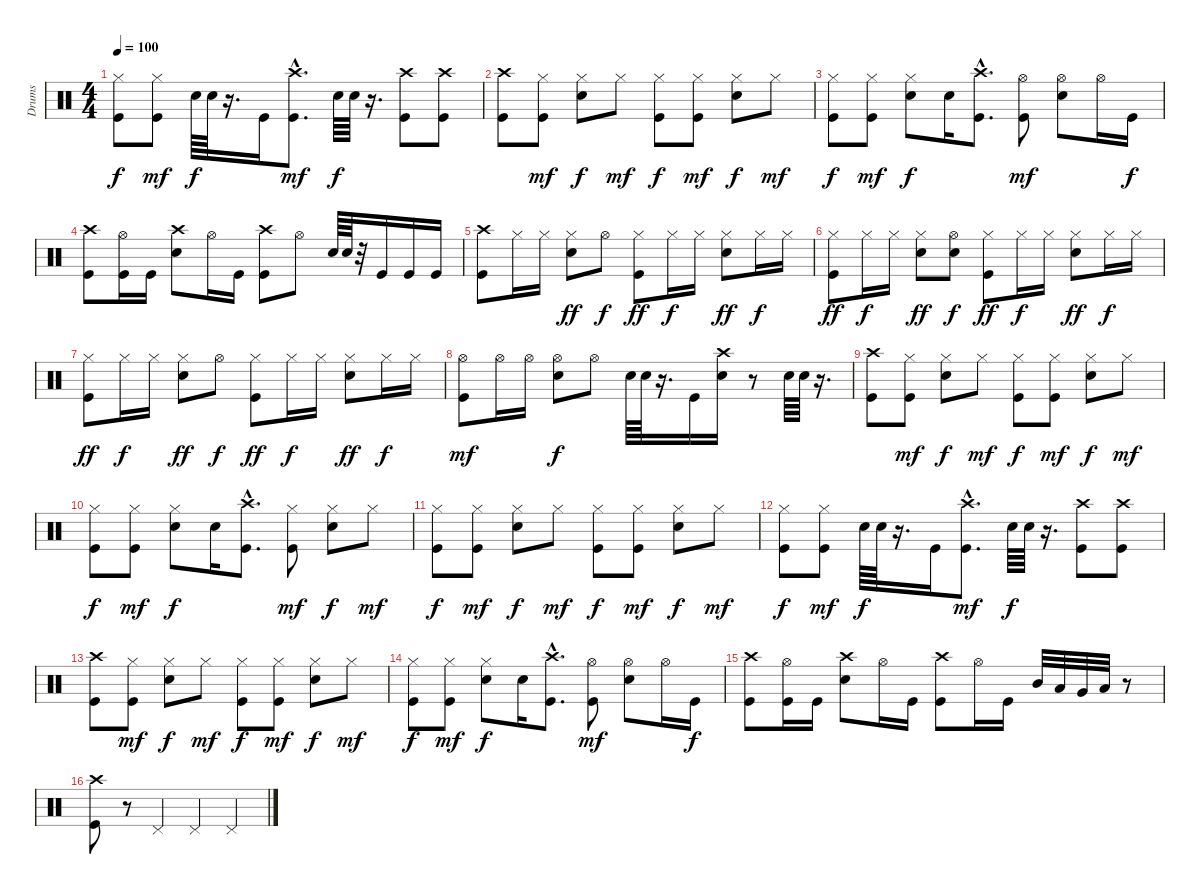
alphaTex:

\track ("Drums" "Drums") {instrument percussion}
\staff {score}
\articulation defaults
\ts (4 4)
\tempo 100
\clef neutral
\ks c
("Hi-Hat (closed)" "Kick (hit)").8{dy f} ("Hi-Hat (closed)" "Kick (hit)").8{dy mf} "Snare (hit) 2".64{dy f} "Snare (hit) 2".64 r.16{d} "Kick (hit)".16 ("Crash high (hit)"{hac} "Kick (hit)"{hac}).8{d dy mf} "Snare (hit) 2".64{dy f} "Snare (hit) 2".64 r.16{d} ("Crash high (hit)" "Kick (hit)").8 ("Crash high (hit)" "Kick (hit)").8 |
("Crash high (hit)" "Kick (hit)").8 ("Hi-Hat (closed)" "Kick (hit)").8{dy mf} ("Hi-Hat (closed)" "Snare (hit) 2").8{dy f} "Hi-Hat (closed)".8{dy mf} ("Hi-Hat (closed)" "Kick (hit)").8{dy f} ("Hi-Hat (closed)" "Kick (hit)").8{dy mf} ("Hi-Hat (closed)" "Snare (hit) 2").8{dy f} "Hi-Hat (closed)".8{dy mf} |
("Hi-Hat (closed)" "Kick (hit)").8{dy f} ("Hi-Hat (closed)" "Kick (hit)").8{dy mf} ("Hi-Hat (closed)" "Snare (hit) 2").8{dy f} "Snare (hit) 2".16 ("Crash high (hit)"{hac} "Kick (hit)"{hac}).8{d} ("Hi-Hat (open)" "Kick (hit)").8{dy mf} ("Hi-Hat (open)" "Snare (hit) 2").8 "Hi-Hat (open)".16 "Kick (hit)".16{dy f} |
("Crash high (hit)" "Kick (hit)").8 ("Hi-Hat (open)" "Kick (hit)").16 "Kick (hit)".16 ("Crash high (hit)" "Snare (hit) 2").8 "Hi-Hat (open)".16 "Kick (hit)".16 ("Crash high (hit)" "Kick (hit)").8 "Hi-Hat (open)".8 "Snare (hit) 2".64 "Snare (hit) 2".64 r.32 "Kick (hit)".16 "Kick (hit)".16 "Kick (hit)".16 |
("Crash high (hit)" "Kick (hit)").8 "Hi-Hat (closed)".16 "Hi-Hat (closed)".16 ("Hi-Hat (closed)" "Snare (hit) 2").8{dy ff} "Hi-Hat (open)".8{dy f} ("Hi-Hat (closed)" "Kick (hit)").8{dy ff} "Hi-Hat (closed)".16{dy f} "Hi-Hat (closed)".16 ("Hi-Hat (closed)" "Snare (hit) 2").8{dy ff} "Hi-Hat (closed)".16{dy f} "Hi-Hat (closed)".16 |
("Hi-Hat (closed)" "Kick (hit)").8{dy ff} "Hi-Hat (closed)".16{dy f} "Hi-Hat (closed)".16 ("Hi-Hat (closed)" "Snare (hit) 2").8{dy ff} ("Hi-Hat (open)" "Snare (hit) 2").8{dy f} ("Hi-Hat (closed)" "Kick (hit)").8{dy ff} "Hi-Hat (closed)".16{dy f} "Hi-Hat (closed)".16 ("Hi-Hat (closed)" "Snare (hit) 2").8{dy ff} "Hi-Hat (closed)".16{dy f} "Hi-Hat (closed)".16 |
("Hi-Hat (closed)" "Kick (hit)").8{dy ff} "Hi-Hat (closed)".16{dy f} "Hi-Hat (closed)".16 ("Hi-Hat (closed)" "Snare (hit) 2").8{dy ff} "Hi-Hat (open)".8{dy f} ("Hi-Hat (closed)" "Kick (hit)").8{dy ff} "Hi-Hat (closed)".16{dy f} "Hi-Hat (closed)".16 ("Hi-Hat (closed)" "Snare (hit) 2").8{dy ff} "Hi-Hat (closed)".16{dy f} "Hi-Hat (closed)".16 |
("Hi-Hat (open)" "Kick (hit)").8{dy mf} "Hi-Hat (open)".16 "Hi-Hat (open)".16 ("Hi-Hat (open)" "Snare (hit) 2").8{dy f} "Hi-Hat (open)".8 "Snare (hit) 2".64 "Snare (hit) 2".64 r.16{d} "Kick (hit)".16 ("Crash high (hit)" "Snare (hit) 2").16 r.8 "Snare (hit) 2".64 "Snare (hit) 2".64 r.16{d} |
("Crash high (hit)" "Kick (hit)").8 ("Hi-Hat (closed)" "Kick (hit)").8{dy mf} ("Hi-Hat (closed)" "Snare (hit) 2").8{dy f} "Hi-Hat (closed)".8{dy mf} ("Hi-Hat (closed)" "Kick (hit)").8{dy f} ("Hi-Hat (closed)" "Kick (hit)").8{dy mf} ("Hi-Hat (closed)" "Snare (hit) 2").8{dy f} "Hi-Hat (closed)".8{dy mf} |
("Hi-Hat (closed)" "Kick (hit)").8{dy f} ("Hi-Hat (closed)" "Kick (hit)").8{dy mf} ("Hi-Hat (closed)" "Snare (hit) 2").8{dy f} "Snare (hit) 2".16 ("Crash high (hit)"{hac} "Kick (hit)"{hac}).8{d} ("Hi-Hat (closed)" "Kick (hit)").8{dy mf} ("Hi-Hat (closed)" "Snare (hit) 2").8{dy f} "Hi-Hat (closed)".8{dy mf} |
("Hi-Hat (closed)" "Kick (hit)").8{dy f} ("Hi-Hat (closed)" "Kick (hit)").8{dy mf} ("Hi-Hat (closed)" "Snare (hit) 2").8{dy f} "Hi-Hat (closed)".8{dy mf} ("Hi-Hat (closed)" "Kick (hit)").8{dy f} ("Hi-Hat (closed)" "Kick (hit)").8{dy mf} ("Hi-Hat (closed)" "Snare (hit) 2").8{dy f} "Hi-Hat (closed)".8{dy mf} |
("Hi-Hat (closed)" "Kick (hit)").8{dy f} ("Hi-Hat (closed)" "Kick (hit)").8{dy mf} "Snare (hit) 2".64{dy f} "Snare (hit) 2".64 r.16{d} "Kick (hit)".16 ("Crash high (hit)"{hac} "Kick (hit)"{hac}).8{d dy mf} "Snare (hit) 2".64{dy f} "Snare (hit) 2".64 r.16{d} ("Crash high (hit)" "Kick (hit)").8 ("Crash high (hit)" "Kick (hit)").8 |
("Crash high (hit)" "Kick (hit)").8 ("Hi-Hat (closed)" "Kick (hit)").8{dy mf} ("Hi-Hat (closed)" "Snare (hit) 2").8{dy f} "Hi-Hat (closed)".8{dy mf} ("Hi-Hat (closed)" "Kick (hit)").8{dy f} ("Hi-Hat (closed)" "Kick (hit)").8{dy mf} ("Hi-Hat (closed)" "Snare (hit) 2").8{dy f} "Hi-Hat (closed)".8{dy mf} |
("Hi-Hat (closed)" "Kick (hit)").8{dy f} ("Hi-Hat (closed)" "Kick (hit)").8{dy mf} ("Hi-Hat (closed)" "Snare (hit) 2").8{dy f} "Snare (hit) 2".16 ("Crash high (hit)"{hac} "Kick (hit)"{hac}).8{d} ("Hi-Hat (open)" "Kick (hit)").8{dy mf} ("Hi-Hat (open)" "Snare (hit) 2").8 "Hi-Hat (open)".16 "Kick (hit)".16{dy f} |
("Crash high (hit)" "Kick (hit)").8 ("Hi-Hat (open)" "Kick (hit)").16 "Kick (hit)".16 ("Crash high (hit)" "Snare (hit) 2").8 "Hi-Hat (open)".16 "Kick (hit)".16 ("Crash high (hit)" "Kick (hit)").8 "Hi-Hat (open)".16 "Kick (hit)".16 "Mid Tom (hit)".32 "Low Tom (hit)".32 "Very Low Tom (hit)".32 "Low Floor Tom (hit)".32 r.8 |
("Crash high (hit)" "Kick (hit)").8 r.8 "Pedal Hi-Hat (hit)".4 "Pedal Hi-Hat (hit)".4 "Pedal Hi-Hat (hit)".4
